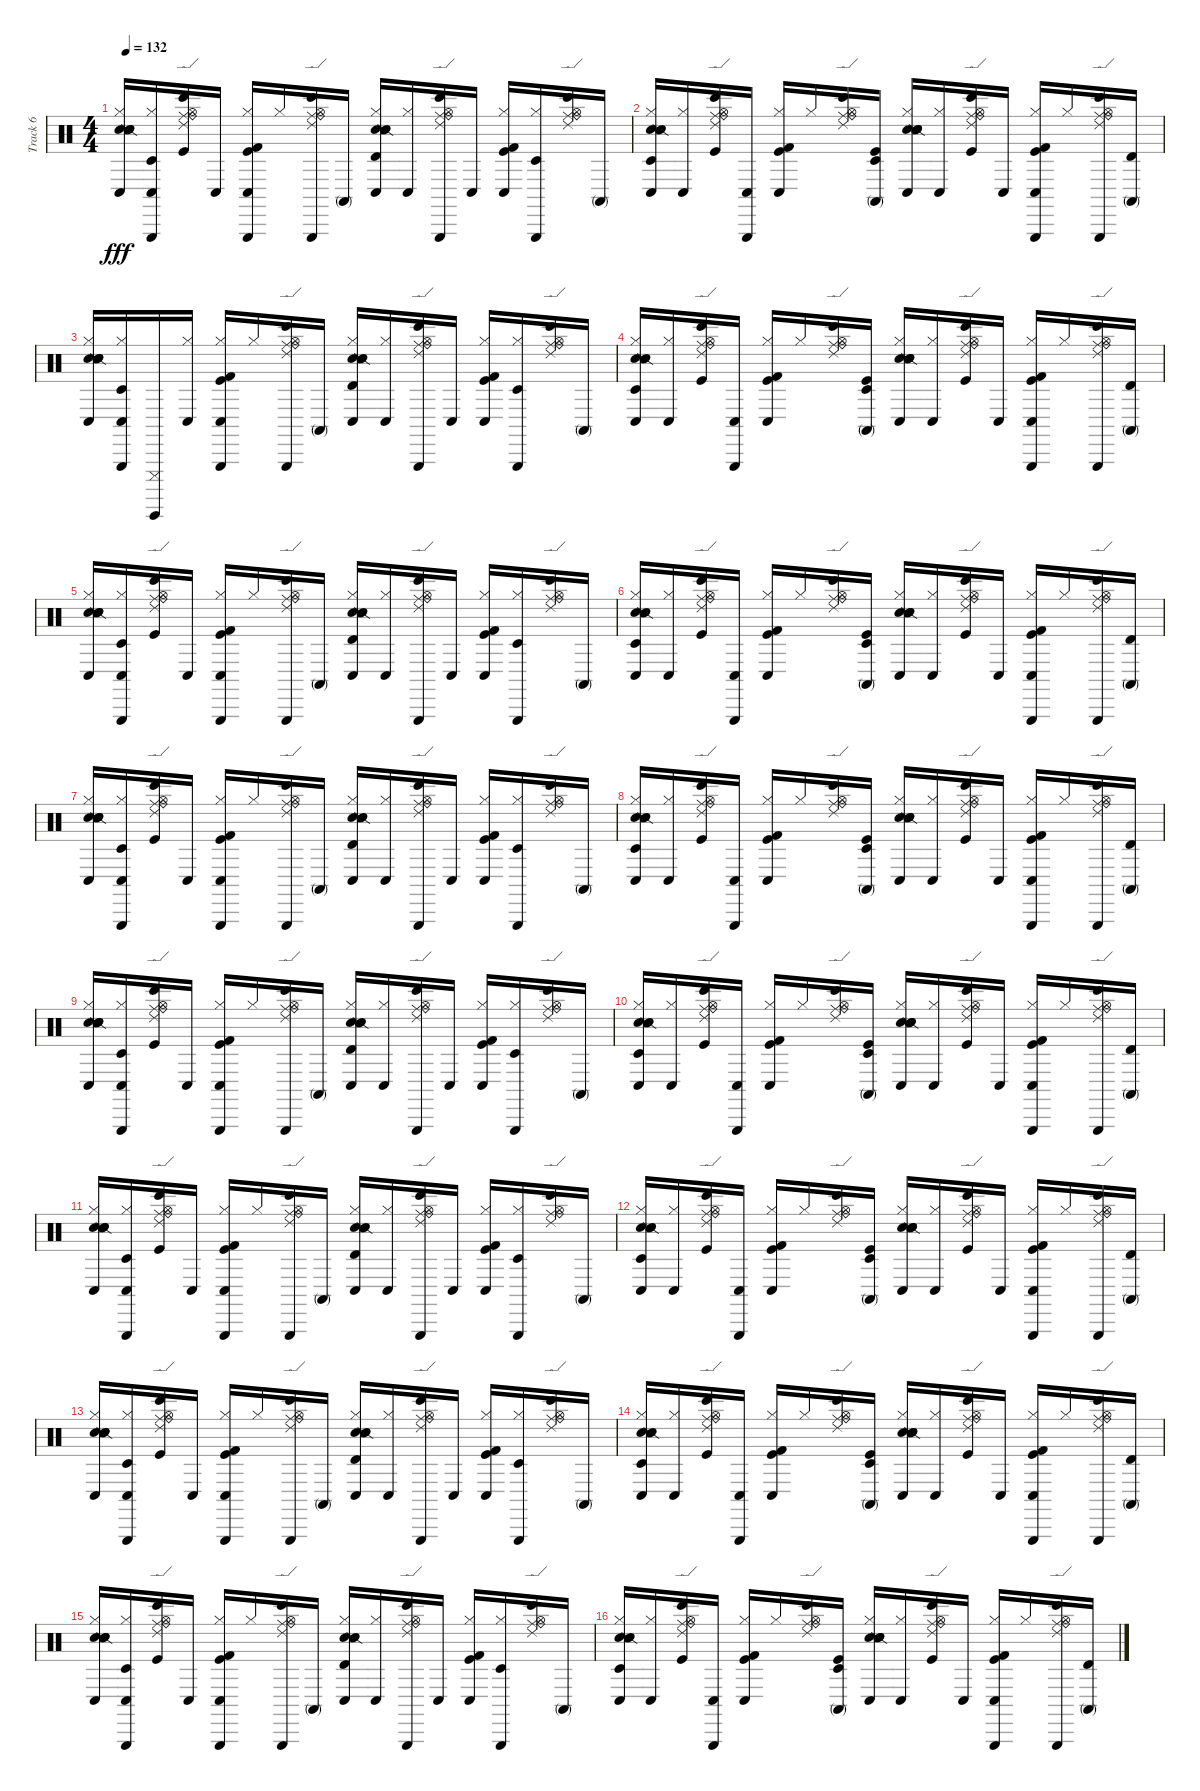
\track ("Track 6" "Track 6") {instrument percussion}
\staff {score}
\articulation defaults
\ts (4 4)
\tempo 132
\clef neutral
\ks c
("Metronome (bell)" "Snare (side stick) 2" "Electric Snare (hit)" "Hi-Hat (closed)" "Conga low (hit)" "Hand Clap (hit)").16{dy fff} ("Hi-Hat (closed)" "Conga low (hit)" "Timbale low (hit)" "Triangle (hit)").16 ("Kick (hit)" "Hi-Hat (open)" "Bongo High (hit)" "Ride (middle)" "Ride (edge) 2" "Ride (bell)").16 "Conga low (hit)".16 ("Hi-Hat (closed)" "Kick (hit)" "Kick (hit) 2" "Conga low (hit)" "Triangle (hit)").16 "Hi-Hat (closed)".16 ("Hi-Hat (open)" "Bongo High (hit)" "Ride (middle)" "Ride (edge) 2" "Ride (bell)" "Triangle (hit)").16 "Conga high (mute)".16 ("Hi-Hat (closed)" "Metronome (bell)" "Snare (side stick) 2" "Electric Snare (hit)" "Conga low (hit)" "Timbale high (hit)").16 ("Hi-Hat (closed)" "Conga low (hit)").16 ("Hi-Hat (open)" "Bongo High (hit)" "Ride (middle)" "Ride (edge) 2" "Ride (bell)" "Triangle (hit)").16 "Conga low (hit)".16 ("Hi-Hat (closed)" "Kick (hit)" "Kick (hit) 2" "Conga low (hit)").16 ("Hi-Hat (closed)" "Timbale low (hit)" "Triangle (hit)").16 ("Hi-Hat (open)" "Bongo High (hit)" "Ride (middle)" "Ride (edge) 2" "Ride (bell)").16 "Conga high (mute)".16 |
("Hi-Hat (closed)" "Metronome (bell)" "Snare (side stick) 2" "Electric Snare (hit)" "Conga low (hit)" "Timbale low (hit)").16 ("Hi-Hat (closed)" "Conga low (hit)").16 ("Hi-Hat (open)" "Kick (hit)" "Bongo High (hit)" "Ride (middle)" "Ride (edge) 2" "Ride (bell)").16 ("Conga low (hit)" "Triangle (hit)").16 ("Kick (hit)" "Kick (hit) 2" "Hi-Hat (closed)" "Conga low (hit)").16 "Hi-Hat (closed)".16 ("Hi-Hat (open)" "Bongo High (hit)" "Ride (middle)" "Ride (edge) 2" "Ride (bell)").16 ("Kick (hit)" "Conga high (mute)" "Timbale low (hit)").16 ("Metronome (bell)" "Snare (side stick) 2" "Electric Snare (hit)" "Hi-Hat (closed)" "Conga low (hit)" "Hand Clap (hit)").16 ("Hi-Hat (closed)" "Conga low (hit)").16 ("Kick (hit)" "Hi-Hat (open)" "Bongo High (hit)" "Ride (middle)" "Ride (edge) 2" "Ride (bell)").16 "Conga low (hit)".16 ("Kick (hit)" "Kick (hit) 2" "Hi-Hat (closed)" "Conga low (hit)" "Triangle (hit)").16 "Hi-Hat (closed)".16 ("Hi-Hat (open)" "Bongo High (hit)" "Ride (middle)" "Ride (edge) 2" "Ride (bell)" "Triangle (hit)").16 ("Conga high (mute)" "Timbale high (hit)").16 |
("Metronome (bell)" "Snare (side stick) 2" "Electric Snare (hit)" "Hi-Hat (closed)" "Conga low (hit)" "Hand Clap (hit)").16 ("Hi-Hat (closed)" "Conga low (hit)" "Timbale low (hit)" "Triangle (hit)").16 ("Cuica (mute)" "Guiro (hit)").16 ("Conga low (hit)" "Hi-Hat (closed)").16 ("Hi-Hat (closed)" "Kick (hit)" "Kick (hit) 2" "Conga low (hit)" "Triangle (hit)").16 "Hi-Hat (closed)".16 ("Hi-Hat (open)" "Bongo High (hit)" "Ride (middle)" "Ride (edge) 2" "Ride (bell)" "Triangle (hit)").16 "Conga high (mute)".16 ("Hi-Hat (closed)" "Metronome (bell)" "Snare (side stick) 2" "Electric Snare (hit)" "Conga low (hit)" "Timbale high (hit)").16 ("Hi-Hat (closed)" "Conga low (hit)").16 ("Hi-Hat (open)" "Bongo High (hit)" "Ride (middle)" "Ride (edge) 2" "Ride (bell)" "Triangle (hit)").16 "Conga low (hit)".16 ("Hi-Hat (closed)" "Kick (hit)" "Kick (hit) 2" "Conga low (hit)").16 ("Hi-Hat (closed)" "Timbale low (hit)" "Triangle (hit)").16 ("Hi-Hat (open)" "Bongo High (hit)" "Ride (middle)" "Ride (edge) 2" "Ride (bell)").16 "Conga high (mute)".16 |
("Hi-Hat (closed)" "Metronome (bell)" "Snare (side stick) 2" "Electric Snare (hit)" "Conga low (hit)" "Timbale low (hit)").16 ("Hi-Hat (closed)" "Conga low (hit)").16 ("Hi-Hat (open)" "Kick (hit)" "Bongo High (hit)" "Ride (middle)" "Ride (edge) 2" "Ride (bell)").16 ("Conga low (hit)" "Triangle (hit)").16 ("Kick (hit)" "Kick (hit) 2" "Hi-Hat (closed)" "Conga low (hit)").16 "Hi-Hat (closed)".16 ("Hi-Hat (open)" "Bongo High (hit)" "Ride (middle)" "Ride (edge) 2" "Ride (bell)").16 ("Kick (hit)" "Conga high (mute)" "Timbale low (hit)").16 ("Metronome (bell)" "Snare (side stick) 2" "Electric Snare (hit)" "Hi-Hat (closed)" "Conga low (hit)" "Hand Clap (hit)").16 ("Hi-Hat (closed)" "Conga low (hit)").16 ("Kick (hit)" "Hi-Hat (open)" "Bongo High (hit)" "Ride (middle)" "Ride (edge) 2" "Ride (bell)").16 "Conga low (hit)".16 ("Kick (hit)" "Kick (hit) 2" "Hi-Hat (closed)" "Conga low (hit)" "Triangle (hit)").16 "Hi-Hat (closed)".16 ("Hi-Hat (open)" "Bongo High (hit)" "Ride (middle)" "Ride (edge) 2" "Ride (bell)" "Triangle (hit)").16 ("Conga high (mute)" "Timbale high (hit)").16 |
("Metronome (bell)" "Snare (side stick) 2" "Electric Snare (hit)" "Hi-Hat (closed)" "Conga low (hit)" "Hand Clap (hit)").16 ("Hi-Hat (closed)" "Conga low (hit)" "Timbale low (hit)" "Triangle (hit)").16 ("Kick (hit)" "Hi-Hat (open)" "Bongo High (hit)" "Ride (middle)" "Ride (edge) 2" "Ride (bell)").16 "Conga low (hit)".16 ("Hi-Hat (closed)" "Kick (hit)" "Kick (hit) 2" "Conga low (hit)" "Triangle (hit)").16 "Hi-Hat (closed)".16 ("Hi-Hat (open)" "Bongo High (hit)" "Ride (middle)" "Ride (edge) 2" "Ride (bell)" "Triangle (hit)").16 "Conga high (mute)".16 ("Hi-Hat (closed)" "Metronome (bell)" "Snare (side stick) 2" "Electric Snare (hit)" "Conga low (hit)" "Timbale high (hit)").16 ("Hi-Hat (closed)" "Conga low (hit)").16 ("Hi-Hat (open)" "Bongo High (hit)" "Ride (middle)" "Ride (edge) 2" "Ride (bell)" "Triangle (hit)").16 "Conga low (hit)".16 ("Hi-Hat (closed)" "Kick (hit)" "Kick (hit) 2" "Conga low (hit)").16 ("Hi-Hat (closed)" "Timbale low (hit)" "Triangle (hit)").16 ("Hi-Hat (open)" "Bongo High (hit)" "Ride (middle)" "Ride (edge) 2" "Ride (bell)").16 "Conga high (mute)".16 |
("Hi-Hat (closed)" "Metronome (bell)" "Snare (side stick) 2" "Electric Snare (hit)" "Conga low (hit)" "Timbale low (hit)").16 ("Hi-Hat (closed)" "Conga low (hit)").16 ("Hi-Hat (open)" "Kick (hit)" "Bongo High (hit)" "Ride (middle)" "Ride (edge) 2" "Ride (bell)").16 ("Conga low (hit)" "Triangle (hit)").16 ("Kick (hit)" "Kick (hit) 2" "Hi-Hat (closed)" "Conga low (hit)").16 "Hi-Hat (closed)".16 ("Hi-Hat (open)" "Bongo High (hit)" "Ride (middle)" "Ride (edge) 2" "Ride (bell)").16 ("Kick (hit)" "Conga high (mute)" "Timbale low (hit)").16 ("Metronome (bell)" "Snare (side stick) 2" "Electric Snare (hit)" "Hi-Hat (closed)" "Conga low (hit)" "Hand Clap (hit)").16 ("Hi-Hat (closed)" "Conga low (hit)").16 ("Kick (hit)" "Hi-Hat (open)" "Bongo High (hit)" "Ride (middle)" "Ride (edge) 2" "Ride (bell)").16 "Conga low (hit)".16 ("Kick (hit)" "Kick (hit) 2" "Hi-Hat (closed)" "Conga low (hit)" "Triangle (hit)").16 "Hi-Hat (closed)".16 ("Hi-Hat (open)" "Bongo High (hit)" "Ride (middle)" "Ride (edge) 2" "Ride (bell)" "Triangle (hit)").16 ("Conga high (mute)" "Timbale high (hit)").16 |
("Metronome (bell)" "Snare (side stick) 2" "Electric Snare (hit)" "Hi-Hat (closed)" "Conga low (hit)" "Hand Clap (hit)").16 ("Hi-Hat (closed)" "Conga low (hit)" "Timbale low (hit)" "Triangle (hit)").16 ("Kick (hit)" "Hi-Hat (open)" "Bongo High (hit)" "Ride (middle)" "Ride (edge) 2" "Ride (bell)").16 "Conga low (hit)".16 ("Hi-Hat (closed)" "Kick (hit)" "Kick (hit) 2" "Conga low (hit)" "Triangle (hit)").16 "Hi-Hat (closed)".16 ("Hi-Hat (open)" "Bongo High (hit)" "Ride (middle)" "Ride (edge) 2" "Ride (bell)" "Triangle (hit)").16 "Conga high (mute)".16 ("Hi-Hat (closed)" "Metronome (bell)" "Snare (side stick) 2" "Electric Snare (hit)" "Conga low (hit)" "Timbale high (hit)").16 ("Hi-Hat (closed)" "Conga low (hit)").16 ("Hi-Hat (open)" "Bongo High (hit)" "Ride (middle)" "Ride (edge) 2" "Ride (bell)" "Triangle (hit)").16 "Conga low (hit)".16 ("Hi-Hat (closed)" "Kick (hit)" "Kick (hit) 2" "Conga low (hit)").16 ("Hi-Hat (closed)" "Timbale low (hit)" "Triangle (hit)").16 ("Hi-Hat (open)" "Bongo High (hit)" "Ride (middle)" "Ride (edge) 2" "Ride (bell)").16 "Conga high (mute)".16 |
("Hi-Hat (closed)" "Metronome (bell)" "Snare (side stick) 2" "Electric Snare (hit)" "Conga low (hit)" "Timbale low (hit)").16 ("Hi-Hat (closed)" "Conga low (hit)").16 ("Hi-Hat (open)" "Kick (hit)" "Bongo High (hit)" "Ride (middle)" "Ride (edge) 2" "Ride (bell)").16 ("Conga low (hit)" "Triangle (hit)").16 ("Kick (hit)" "Kick (hit) 2" "Hi-Hat (closed)" "Conga low (hit)").16 "Hi-Hat (closed)".16 ("Hi-Hat (open)" "Bongo High (hit)" "Ride (middle)" "Ride (edge) 2" "Ride (bell)").16 ("Kick (hit)" "Conga high (mute)" "Timbale low (hit)").16 ("Metronome (bell)" "Snare (side stick) 2" "Electric Snare (hit)" "Hi-Hat (closed)" "Conga low (hit)" "Hand Clap (hit)").16 ("Hi-Hat (closed)" "Conga low (hit)").16 ("Kick (hit)" "Hi-Hat (open)" "Bongo High (hit)" "Ride (middle)" "Ride (edge) 2" "Ride (bell)").16 "Conga low (hit)".16 ("Kick (hit)" "Kick (hit) 2" "Hi-Hat (closed)" "Conga low (hit)" "Triangle (hit)").16 "Hi-Hat (closed)".16 ("Hi-Hat (open)" "Bongo High (hit)" "Ride (middle)" "Ride (edge) 2" "Ride (bell)" "Triangle (hit)").16 ("Conga high (mute)" "Timbale high (hit)").16 |
("Metronome (bell)" "Snare (side stick) 2" "Electric Snare (hit)" "Hi-Hat (closed)" "Conga low (hit)" "Hand Clap (hit)").16 ("Hi-Hat (closed)" "Conga low (hit)" "Timbale low (hit)" "Triangle (hit)").16 ("Kick (hit)" "Hi-Hat (open)" "Bongo High (hit)" "Ride (middle)" "Ride (edge) 2" "Ride (bell)").16 "Conga low (hit)".16 ("Hi-Hat (closed)" "Kick (hit)" "Kick (hit) 2" "Conga low (hit)" "Triangle (hit)").16 "Hi-Hat (closed)".16 ("Hi-Hat (open)" "Bongo High (hit)" "Ride (middle)" "Ride (edge) 2" "Ride (bell)" "Triangle (hit)").16 "Conga high (mute)".16 ("Hi-Hat (closed)" "Metronome (bell)" "Snare (side stick) 2" "Electric Snare (hit)" "Conga low (hit)" "Timbale high (hit)").16 ("Hi-Hat (closed)" "Conga low (hit)").16 ("Hi-Hat (open)" "Bongo High (hit)" "Ride (middle)" "Ride (edge) 2" "Ride (bell)" "Triangle (hit)").16 "Conga low (hit)".16 ("Hi-Hat (closed)" "Kick (hit)" "Kick (hit) 2" "Conga low (hit)").16 ("Hi-Hat (closed)" "Timbale low (hit)" "Triangle (hit)").16 ("Hi-Hat (open)" "Bongo High (hit)" "Ride (middle)" "Ride (edge) 2" "Ride (bell)").16 "Conga high (mute)".16 |
("Hi-Hat (closed)" "Metronome (bell)" "Snare (side stick) 2" "Electric Snare (hit)" "Conga low (hit)" "Timbale low (hit)").16 ("Hi-Hat (closed)" "Conga low (hit)").16 ("Hi-Hat (open)" "Kick (hit)" "Bongo High (hit)" "Ride (middle)" "Ride (edge) 2" "Ride (bell)").16 ("Conga low (hit)" "Triangle (hit)").16 ("Kick (hit)" "Kick (hit) 2" "Hi-Hat (closed)" "Conga low (hit)").16 "Hi-Hat (closed)".16 ("Hi-Hat (open)" "Bongo High (hit)" "Ride (middle)" "Ride (edge) 2" "Ride (bell)").16 ("Kick (hit)" "Conga high (mute)" "Timbale low (hit)").16 ("Metronome (bell)" "Snare (side stick) 2" "Electric Snare (hit)" "Hi-Hat (closed)" "Conga low (hit)" "Hand Clap (hit)").16 ("Hi-Hat (closed)" "Conga low (hit)").16 ("Kick (hit)" "Hi-Hat (open)" "Bongo High (hit)" "Ride (middle)" "Ride (edge) 2" "Ride (bell)").16 "Conga low (hit)".16 ("Kick (hit)" "Kick (hit) 2" "Hi-Hat (closed)" "Conga low (hit)" "Triangle (hit)").16 "Hi-Hat (closed)".16 ("Hi-Hat (open)" "Bongo High (hit)" "Ride (middle)" "Ride (edge) 2" "Ride (bell)" "Triangle (hit)").16 ("Conga high (mute)" "Timbale high (hit)").16 |
("Metronome (bell)" "Snare (side stick) 2" "Electric Snare (hit)" "Hi-Hat (closed)" "Conga low (hit)" "Hand Clap (hit)").16 ("Hi-Hat (closed)" "Conga low (hit)" "Timbale low (hit)" "Triangle (hit)").16 ("Kick (hit)" "Hi-Hat (open)" "Bongo High (hit)" "Ride (middle)" "Ride (edge) 2" "Ride (bell)").16 "Conga low (hit)".16 ("Hi-Hat (closed)" "Kick (hit)" "Kick (hit) 2" "Conga low (hit)" "Triangle (hit)").16 "Hi-Hat (closed)".16 ("Hi-Hat (open)" "Bongo High (hit)" "Ride (middle)" "Ride (edge) 2" "Ride (bell)" "Triangle (hit)").16 "Conga high (mute)".16 ("Hi-Hat (closed)" "Metronome (bell)" "Snare (side stick) 2" "Electric Snare (hit)" "Conga low (hit)" "Timbale high (hit)").16 ("Hi-Hat (closed)" "Conga low (hit)").16 ("Hi-Hat (open)" "Bongo High (hit)" "Ride (middle)" "Ride (edge) 2" "Ride (bell)" "Triangle (hit)").16 "Conga low (hit)".16 ("Hi-Hat (closed)" "Kick (hit)" "Kick (hit) 2" "Conga low (hit)").16 ("Hi-Hat (closed)" "Timbale low (hit)" "Triangle (hit)").16 ("Hi-Hat (open)" "Bongo High (hit)" "Ride (middle)" "Ride (edge) 2" "Ride (bell)").16 "Conga high (mute)".16 |
("Hi-Hat (closed)" "Metronome (bell)" "Snare (side stick) 2" "Electric Snare (hit)" "Conga low (hit)" "Timbale low (hit)").16 ("Hi-Hat (closed)" "Conga low (hit)").16 ("Hi-Hat (open)" "Kick (hit)" "Bongo High (hit)" "Ride (middle)" "Ride (edge) 2" "Ride (bell)").16 ("Conga low (hit)" "Triangle (hit)").16 ("Kick (hit)" "Kick (hit) 2" "Hi-Hat (closed)" "Conga low (hit)").16 "Hi-Hat (closed)".16 ("Hi-Hat (open)" "Bongo High (hit)" "Ride (middle)" "Ride (edge) 2" "Ride (bell)").16 ("Kick (hit)" "Conga high (mute)" "Timbale low (hit)").16 ("Metronome (bell)" "Snare (side stick) 2" "Electric Snare (hit)" "Hi-Hat (closed)" "Conga low (hit)" "Hand Clap (hit)").16 ("Hi-Hat (closed)" "Conga low (hit)").16 ("Kick (hit)" "Hi-Hat (open)" "Bongo High (hit)" "Ride (middle)" "Ride (edge) 2" "Ride (bell)").16 "Conga low (hit)".16 ("Kick (hit)" "Kick (hit) 2" "Hi-Hat (closed)" "Conga low (hit)" "Triangle (hit)").16 "Hi-Hat (closed)".16 ("Hi-Hat (open)" "Bongo High (hit)" "Ride (middle)" "Ride (edge) 2" "Ride (bell)" "Triangle (hit)").16 ("Conga high (mute)" "Timbale high (hit)").16 |
("Metronome (bell)" "Snare (side stick) 2" "Electric Snare (hit)" "Hi-Hat (closed)" "Conga low (hit)" "Hand Clap (hit)").16 ("Hi-Hat (closed)" "Conga low (hit)" "Timbale low (hit)" "Triangle (hit)").16 ("Kick (hit)" "Hi-Hat (open)" "Bongo High (hit)" "Ride (middle)" "Ride (edge) 2" "Ride (bell)").16 "Conga low (hit)".16 ("Hi-Hat (closed)" "Kick (hit)" "Kick (hit) 2" "Conga low (hit)" "Triangle (hit)").16 "Hi-Hat (closed)".16 ("Hi-Hat (open)" "Bongo High (hit)" "Ride (middle)" "Ride (edge) 2" "Ride (bell)" "Triangle (hit)").16 "Conga high (mute)".16 ("Hi-Hat (closed)" "Metronome (bell)" "Snare (side stick) 2" "Electric Snare (hit)" "Conga low (hit)" "Timbale high (hit)").16 ("Hi-Hat (closed)" "Conga low (hit)").16 ("Hi-Hat (open)" "Bongo High (hit)" "Ride (middle)" "Ride (edge) 2" "Ride (bell)" "Triangle (hit)").16 "Conga low (hit)".16 ("Hi-Hat (closed)" "Kick (hit)" "Kick (hit) 2" "Conga low (hit)").16 ("Hi-Hat (closed)" "Timbale low (hit)" "Triangle (hit)").16 ("Hi-Hat (open)" "Bongo High (hit)" "Ride (middle)" "Ride (edge) 2" "Ride (bell)").16 "Conga high (mute)".16 |
("Hi-Hat (closed)" "Metronome (bell)" "Snare (side stick) 2" "Electric Snare (hit)" "Conga low (hit)" "Timbale low (hit)").16 ("Hi-Hat (closed)" "Conga low (hit)").16 ("Hi-Hat (open)" "Kick (hit)" "Bongo High (hit)" "Ride (middle)" "Ride (edge) 2" "Ride (bell)").16 ("Conga low (hit)" "Triangle (hit)").16 ("Kick (hit)" "Kick (hit) 2" "Hi-Hat (closed)" "Conga low (hit)").16 "Hi-Hat (closed)".16 ("Hi-Hat (open)" "Bongo High (hit)" "Ride (middle)" "Ride (edge) 2" "Ride (bell)").16 ("Kick (hit)" "Conga high (mute)" "Timbale low (hit)").16 ("Metronome (bell)" "Snare (side stick) 2" "Electric Snare (hit)" "Hi-Hat (closed)" "Conga low (hit)" "Hand Clap (hit)").16 ("Hi-Hat (closed)" "Conga low (hit)").16 ("Kick (hit)" "Hi-Hat (open)" "Bongo High (hit)" "Ride (middle)" "Ride (edge) 2" "Ride (bell)").16 "Conga low (hit)".16 ("Kick (hit)" "Kick (hit) 2" "Hi-Hat (closed)" "Conga low (hit)" "Triangle (hit)").16 "Hi-Hat (closed)".16 ("Hi-Hat (open)" "Bongo High (hit)" "Ride (middle)" "Ride (edge) 2" "Ride (bell)" "Triangle (hit)").16 ("Conga high (mute)" "Timbale high (hit)").16 |
("Metronome (bell)" "Snare (side stick) 2" "Electric Snare (hit)" "Hi-Hat (closed)" "Conga low (hit)" "Hand Clap (hit)").16 ("Hi-Hat (closed)" "Conga low (hit)" "Timbale low (hit)" "Triangle (hit)").16 ("Kick (hit)" "Hi-Hat (open)" "Bongo High (hit)" "Ride (middle)" "Ride (edge) 2" "Ride (bell)").16 "Conga low (hit)".16 ("Hi-Hat (closed)" "Kick (hit)" "Kick (hit) 2" "Conga low (hit)" "Triangle (hit)").16 "Hi-Hat (closed)".16 ("Hi-Hat (open)" "Bongo High (hit)" "Ride (middle)" "Ride (edge) 2" "Ride (bell)" "Triangle (hit)").16 "Conga high (mute)".16 ("Hi-Hat (closed)" "Metronome (bell)" "Snare (side stick) 2" "Electric Snare (hit)" "Conga low (hit)" "Timbale high (hit)").16 ("Hi-Hat (closed)" "Conga low (hit)").16 ("Hi-Hat (open)" "Bongo High (hit)" "Ride (middle)" "Ride (edge) 2" "Ride (bell)" "Triangle (hit)").16 "Conga low (hit)".16 ("Hi-Hat (closed)" "Kick (hit)" "Kick (hit) 2" "Conga low (hit)").16 ("Hi-Hat (closed)" "Timbale low (hit)" "Triangle (hit)").16 ("Hi-Hat (open)" "Bongo High (hit)" "Ride (middle)" "Ride (edge) 2" "Ride (bell)").16 "Conga high (mute)".16 |
("Hi-Hat (closed)" "Metronome (bell)" "Snare (side stick) 2" "Electric Snare (hit)" "Conga low (hit)" "Timbale low (hit)").16 ("Hi-Hat (closed)" "Conga low (hit)").16 ("Hi-Hat (open)" "Kick (hit)" "Bongo High (hit)" "Ride (middle)" "Ride (edge) 2" "Ride (bell)").16 ("Conga low (hit)" "Triangle (hit)").16 ("Kick (hit)" "Kick (hit) 2" "Hi-Hat (closed)" "Conga low (hit)").16 "Hi-Hat (closed)".16 ("Hi-Hat (open)" "Bongo High (hit)" "Ride (middle)" "Ride (edge) 2" "Ride (bell)").16 ("Kick (hit)" "Conga high (mute)" "Timbale low (hit)").16 ("Metronome (bell)" "Snare (side stick) 2" "Electric Snare (hit)" "Hi-Hat (closed)" "Conga low (hit)" "Hand Clap (hit)").16 ("Hi-Hat (closed)" "Conga low (hit)").16 ("Kick (hit)" "Hi-Hat (open)" "Bongo High (hit)" "Ride (middle)" "Ride (edge) 2" "Ride (bell)").16 "Conga low (hit)".16 ("Kick (hit)" "Kick (hit) 2" "Hi-Hat (closed)" "Conga low (hit)" "Triangle (hit)").16 "Hi-Hat (closed)".16 ("Hi-Hat (open)" "Bongo High (hit)" "Ride (middle)" "Ride (edge) 2" "Ride (bell)" "Triangle (hit)").16 ("Conga high (mute)" "Timbale high (hit)").16
